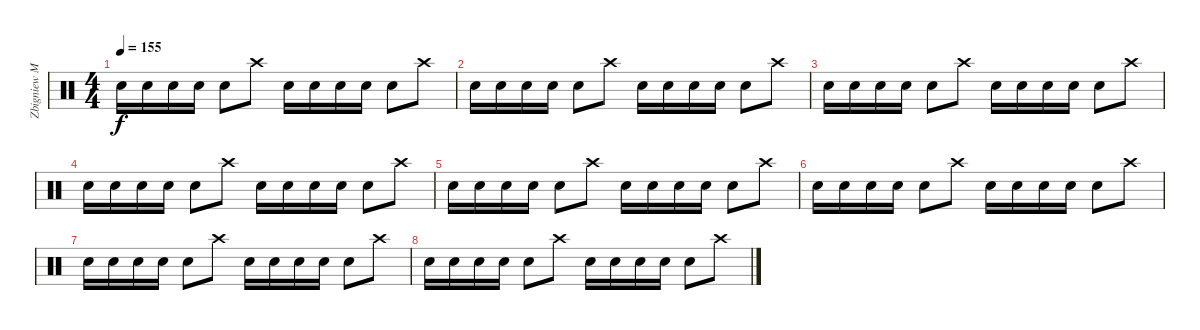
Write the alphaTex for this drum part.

\track ("Zbigniew Musiński " "Zbigniew M") {instrument percussion}
\staff {score}
\articulation defaults
\ts (4 4)
\tempo 155
\clef neutral
\ks c "Snare (hit) 2".16{dy f} "Snare (hit) 2".16 "Snare (hit) 2".16 "Snare (hit) 2".16 "Snare (hit) 2".8 "Crash high (hit)".8 "Snare (hit) 2".16 "Snare (hit) 2".16 "Snare (hit) 2".16 "Snare (hit) 2".16 "Snare (hit) 2".8 "Crash high (hit)".8
|
"Snare (hit) 2".16 "Snare (hit) 2".16 "Snare (hit) 2".16 "Snare (hit) 2".16 "Snare (hit) 2".8 "Crash high (hit)".8 "Snare (hit) 2".16 "Snare (hit) 2".16 "Snare (hit) 2".16 "Snare (hit) 2".16 "Snare (hit) 2".8 "Crash high (hit)".8 |
"Snare (hit) 2".16 "Snare (hit) 2".16 "Snare (hit) 2".16 "Snare (hit) 2".16 "Snare (hit) 2".8 "Crash high (hit)".8 "Snare (hit) 2".16 "Snare (hit) 2".16 "Snare (hit) 2".16 "Snare (hit) 2".16 "Snare (hit) 2".8 "Crash high (hit)".8 |
"Snare (hit) 2".16 "Snare (hit) 2".16 "Snare (hit) 2".16 "Snare (hit) 2".16 "Snare (hit) 2".8 "Crash high (hit)".8 "Snare (hit) 2".16 "Snare (hit) 2".16 "Snare (hit) 2".16 "Snare (hit) 2".16 "Snare (hit) 2".8 "Crash high (hit)".8 |
"Snare (hit) 2".16 "Snare (hit) 2".16 "Snare (hit) 2".16 "Snare (hit) 2".16 "Snare (hit) 2".8 "Crash high (hit)".8 "Snare (hit) 2".16 "Snare (hit) 2".16 "Snare (hit) 2".16 "Snare (hit) 2".16 "Snare (hit) 2".8 "Crash high (hit)".8 |
"Snare (hit) 2".16 "Snare (hit) 2".16 "Snare (hit) 2".16 "Snare (hit) 2".16 "Snare (hit) 2".8 "Crash high (hit)".8 "Snare (hit) 2".16 "Snare (hit) 2".16 "Snare (hit) 2".16 "Snare (hit) 2".16 "Snare (hit) 2".8 "Crash high (hit)".8 |
"Snare (hit) 2".16 "Snare (hit) 2".16 "Snare (hit) 2".16 "Snare (hit) 2".16 "Snare (hit) 2".8 "Crash high (hit)".8 "Snare (hit) 2".16 "Snare (hit) 2".16 "Snare (hit) 2".16 "Snare (hit) 2".16 "Snare (hit) 2".8 "Crash high (hit)".8 |
"Snare (hit) 2".16 "Snare (hit) 2".16 "Snare (hit) 2".16 "Snare (hit) 2".16 "Snare (hit) 2".8 "Crash high (hit)".8 "Snare (hit) 2".16 "Snare (hit) 2".16 "Snare (hit) 2".16 "Snare (hit) 2".16 "Snare (hit) 2".8 "Crash high (hit)".8
